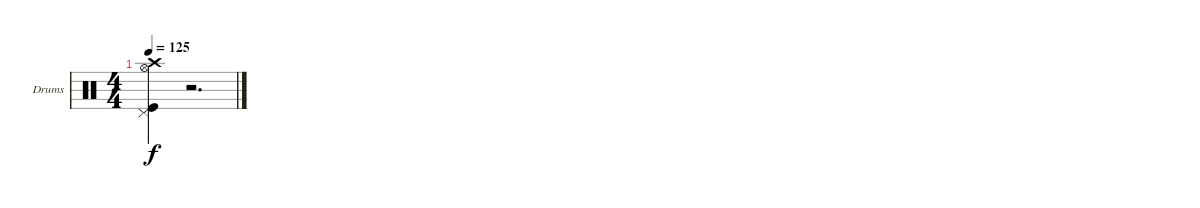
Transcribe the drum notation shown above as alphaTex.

\defaultSystemsLayout 4
\bracketExtendMode groupsimilarinstruments
\firstSystemTrackNameOrientation horizontal
\otherSystemsTrackNameOrientation horizontal
\track ("Drums" "Drums") {instrument percussion}
\staff {score}
\articulation defaults
\ts (4 4)
\tempo 125
\clef neutral
\ks c
("Kick (hit)" "Pedal Hi-Hat (hit)" "Hi-Hat (open)" "Crash high (hit)").4{dy f} r.2{d}
